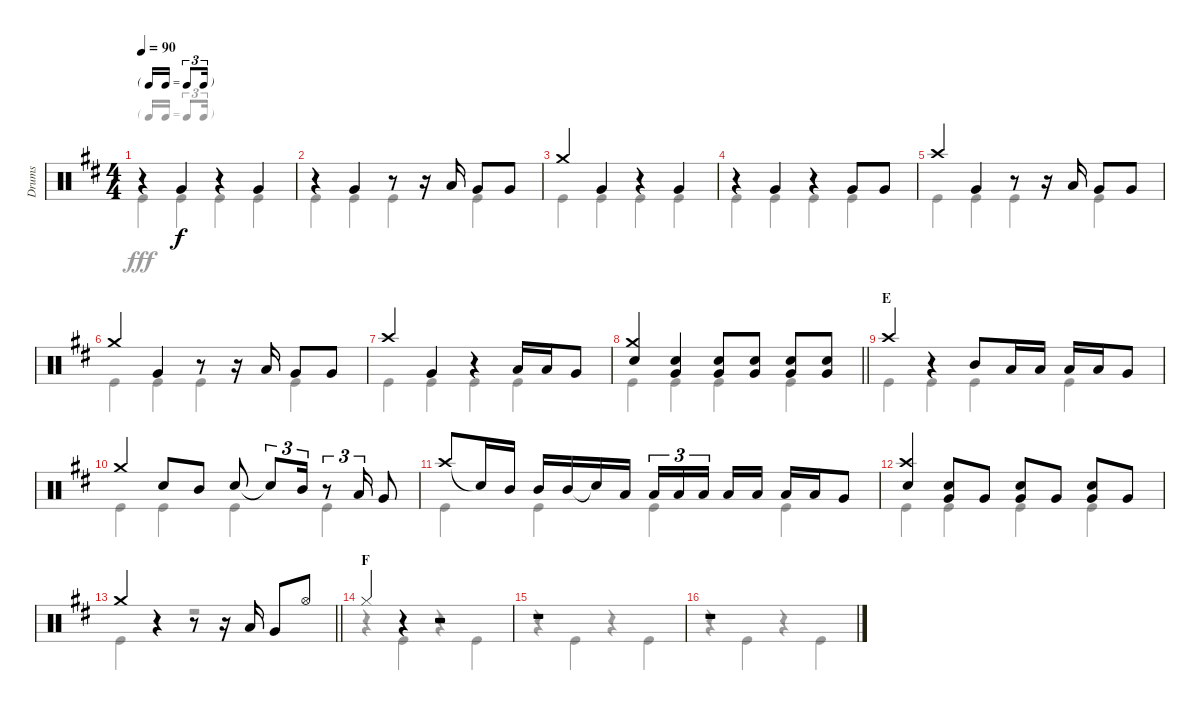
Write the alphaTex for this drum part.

\track ("Drums" "Drums") {instrument percussion}
\staff {score}
\articulation defaults
\voice
\ts (4 4)
\tf triplet16th
\tempo 90
\clef neutral
\ks d
r.4{dy f} "Very Low Tom (hit)".4 r.4 "Very Low Tom (hit)".4 |
r.4 "Very Low Tom (hit)".4 r.8 r.16 "Low Tom (hit)".16 "Very Low Tom (hit)".8 "Very Low Tom (hit)".8 |
"Crash medium (hit)".4 "Very Low Tom (hit)".4 r.4 "Very Low Tom (hit)".4 |
r.4 "Very Low Tom (hit)".4 r.4 "Very Low Tom (hit)".8 "Very Low Tom (hit)".8 |
"Crash high (hit)".4 "Very Low Tom (hit)".4 r.8 r.16 "Low Tom (hit)".16 "Very Low Tom (hit)".8 "Very Low Tom (hit)".8 |
"Crash medium (hit)".4 "Very Low Tom (hit)".4 r.8 r.16 "Low Tom (hit)".16 "Very Low Tom (hit)".8 "Very Low Tom (hit)".8 |
"Crash high (hit)".4 "Very Low Tom (hit)".4 r.4 "Low Tom (hit)".16 "Low Tom (hit)".16 "Very Low Tom (hit)".8 |
\barLineRight lightlight
("Crash medium (hit)" "Snare (hit) 2").4 ("Snare (hit) 2" "Very Low Tom (hit)").4 ("Snare (hit) 2" "Very Low Tom (hit)").8 ("Snare (hit) 2" "Very Low Tom (hit)").8 ("Snare (hit) 2" "Very Low Tom (hit)").8 ("Snare (hit) 2" "Very Low Tom (hit)").8 |
\section ("" "E")
"Crash high (hit)".4 r.4 "Mid Tom (hit)".8 "Low Tom (hit)".16 "Low Tom (hit)".16 "Low Tom (hit)".16 "Low Tom (hit)".16 "Very Low Tom (hit)".8 |
"Crash medium (hit)".4 "Snare (hit) 2".8 "Mid Tom (hit)".8 "Snare (hit) 2".8 "Snare (hit)"{t}.8{tu (3 2)} "Mid Tom (hit)".16{tu (3 2)} r.8{tu (3 2)} "Low Tom (hit)".16{tu (3 2)} "Very Low Tom (hit)".8 |
"Crash high (hit)".8 "Snare (hit)"{t}.16 "Mid Tom (hit)".16 "Mid Tom (hit)".16 "Mid Tom (hit)".16 "Snare (hit)"{t}.16 "Low Tom (hit)".16 "Low Tom (hit)".16{tu (3 2)} "Low Tom (hit)".16{tu (3 2)} "Low Tom (hit)".16{tu (3 2) beam splitsecondary} "Low Tom (hit)".16 "Low Tom (hit)".16 "Low Tom (hit)".16 "Low Tom (hit)".16 "Very Low Tom (hit)".8 |
("Crash high (hit)" "Snare (hit) 2").4 ("Snare (hit) 2" "Very Low Tom (hit)").8 "Very Low Tom (hit)".8 ("Snare (hit) 2" "Very Low Tom (hit)").8 "Very Low Tom (hit)".8 ("Snare (hit) 2" "Very Low Tom (hit)").8 "Very Low Tom (hit)".8 |
\barLineRight lightlight "Crash medium (hit)".4
r.4 r.8 r.16 "Low Tom (hit)".16 "Very Low Tom (hit)".8 "Hi-Hat (open)".8 |
\section ("" "F")
"Hi-Hat (closed)".4 r.4 r.2 |
r.1 |
r.1
\voice
\clef neutral
\ottava regular
\simile none
\ks d "Kick (hit)".4{dy fff} "Kick (hit)".4 "Kick (hit)".4 "Kick (hit)".4
|
"Kick (hit)".4 "Kick (hit)".4 "Kick (hit)".4 "Kick (hit)".4 |
"Kick (hit)".4 "Kick (hit)".4 "Kick (hit)".4 "Kick (hit)".4 |
"Kick (hit)".4 "Kick (hit)".4 "Kick (hit)".4 "Kick (hit)".4 |
"Kick (hit)".4 "Kick (hit)".4 "Kick (hit)".4 "Kick (hit)".4 |
"Kick (hit)".4 "Kick (hit)".4 "Kick (hit)".4 "Kick (hit)".4 |
"Kick (hit)".4 "Kick (hit)".4 "Kick (hit)".4 "Kick (hit)".4 |
\barLineRight lightlight "Kick (hit)".4 "Kick (hit)".4 "Kick (hit)".4 "Kick (hit)".4
|
"Kick (hit)".4 "Kick (hit)".4 "Kick (hit)".4 "Kick (hit)".4 |
"Kick (hit)".4 "Kick (hit)".4 "Kick (hit)".4 "Kick (hit)".4 |
"Kick (hit)".4 "Kick (hit)".4 "Kick (hit)".4 "Kick (hit)".4 |
"Kick (hit)".4 "Kick (hit)".4 "Kick (hit)".4 "Kick (hit)".4 |
\barLineRight lightlight "Kick (hit)".4
r.4 r.2 |
r.4 "Kick (hit)".4 r.4 "Kick (hit)".4 |
r.4 "Kick (hit)".4 r.4 "Kick (hit)".4 |
r.4 "Kick (hit)".4 r.4 "Kick (hit)".4
